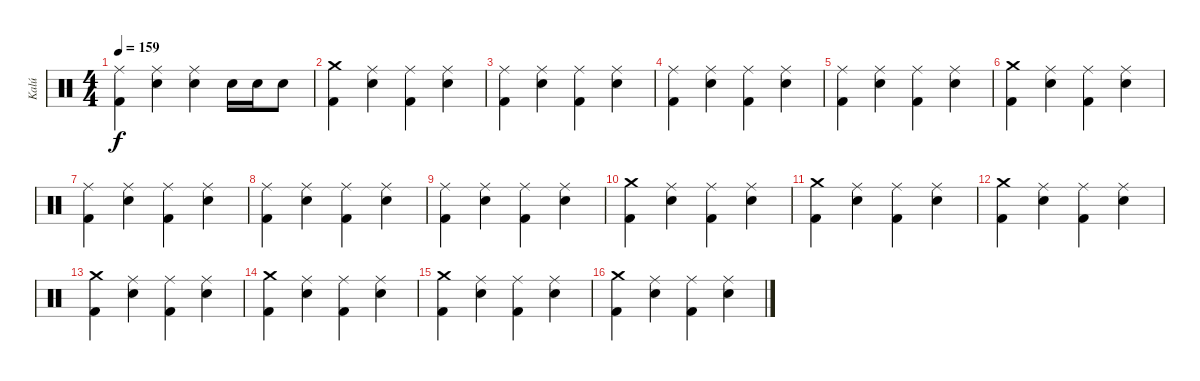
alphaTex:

\track ("Kalú" "Kalú") {instrument percussion}
\staff {score}
\articulation defaults
\ts (4 4)
\tempo 159
\clef neutral
\ks c
("Ride (middle)" "Kick (hit) 2").4{dy f} ("Ride (middle)" "Electric Snare (hit)").4 ("Ride (middle)" "Electric Snare (hit)").4 "Electric Snare (hit)".16 "Electric Snare (hit)".16 "Electric Snare (hit)".8 |
("Crash medium (hit)" "Kick (hit) 2").4 ("Ride (middle)" "Electric Snare (hit)").4 ("Ride (middle)" "Kick (hit) 2").4 ("Ride (middle)" "Electric Snare (hit)").4 |
("Ride (middle)" "Kick (hit) 2").4 ("Ride (middle)" "Electric Snare (hit)").4 ("Ride (middle)" "Kick (hit) 2").4 ("Ride (middle)" "Electric Snare (hit)").4 |
("Ride (middle)" "Kick (hit) 2").4 ("Ride (middle)" "Electric Snare (hit)").4 ("Ride (middle)" "Kick (hit) 2").4 ("Ride (middle)" "Electric Snare (hit)").4 |
("Ride (middle)" "Kick (hit) 2").4 ("Ride (middle)" "Electric Snare (hit)").4 ("Ride (middle)" "Kick (hit) 2").4 ("Ride (middle)" "Electric Snare (hit)").4 |
("Crash medium (hit)" "Kick (hit) 2").4 ("Ride (middle)" "Electric Snare (hit)").4 ("Ride (middle)" "Kick (hit) 2").4 ("Ride (middle)" "Electric Snare (hit)").4 |
("Ride (middle)" "Kick (hit) 2").4 ("Ride (middle)" "Electric Snare (hit)").4 ("Ride (middle)" "Kick (hit) 2").4 ("Ride (middle)" "Electric Snare (hit)").4 |
("Ride (middle)" "Kick (hit) 2").4 ("Ride (middle)" "Electric Snare (hit)").4 ("Ride (middle)" "Kick (hit) 2").4 ("Ride (middle)" "Electric Snare (hit)").4 |
("Ride (middle)" "Kick (hit) 2").4 ("Ride (middle)" "Electric Snare (hit)").4 ("Ride (middle)" "Kick (hit) 2").4 ("Ride (middle)" "Electric Snare (hit)").4 |
("Crash medium (hit)" "Kick (hit) 2").4 ("Ride (middle)" "Electric Snare (hit)").4 ("Ride (middle)" "Kick (hit) 2").4 ("Ride (middle)" "Electric Snare (hit)").4 |
("Crash medium (hit)" "Kick (hit) 2").4 ("Ride (middle)" "Electric Snare (hit)").4 ("Ride (middle)" "Kick (hit) 2").4 ("Ride (middle)" "Electric Snare (hit)").4 |
("Crash medium (hit)" "Kick (hit) 2").4 ("Ride (middle)" "Electric Snare (hit)").4 ("Ride (middle)" "Kick (hit) 2").4 ("Ride (middle)" "Electric Snare (hit)").4 |
("Crash medium (hit)" "Kick (hit) 2").4 ("Ride (middle)" "Electric Snare (hit)").4 ("Ride (middle)" "Kick (hit) 2").4 ("Ride (middle)" "Electric Snare (hit)").4 |
("Crash medium (hit)" "Kick (hit) 2").4 ("Ride (middle)" "Electric Snare (hit)").4 ("Ride (middle)" "Kick (hit) 2").4 ("Ride (middle)" "Electric Snare (hit)").4 |
("Crash medium (hit)" "Kick (hit) 2").4 ("Ride (middle)" "Electric Snare (hit)").4 ("Ride (middle)" "Kick (hit) 2").4 ("Ride (middle)" "Electric Snare (hit)").4 |
("Crash medium (hit)" "Kick (hit) 2").4 ("Ride (middle)" "Electric Snare (hit)").4 ("Ride (middle)" "Kick (hit) 2").4 ("Ride (middle)" "Electric Snare (hit)").4
